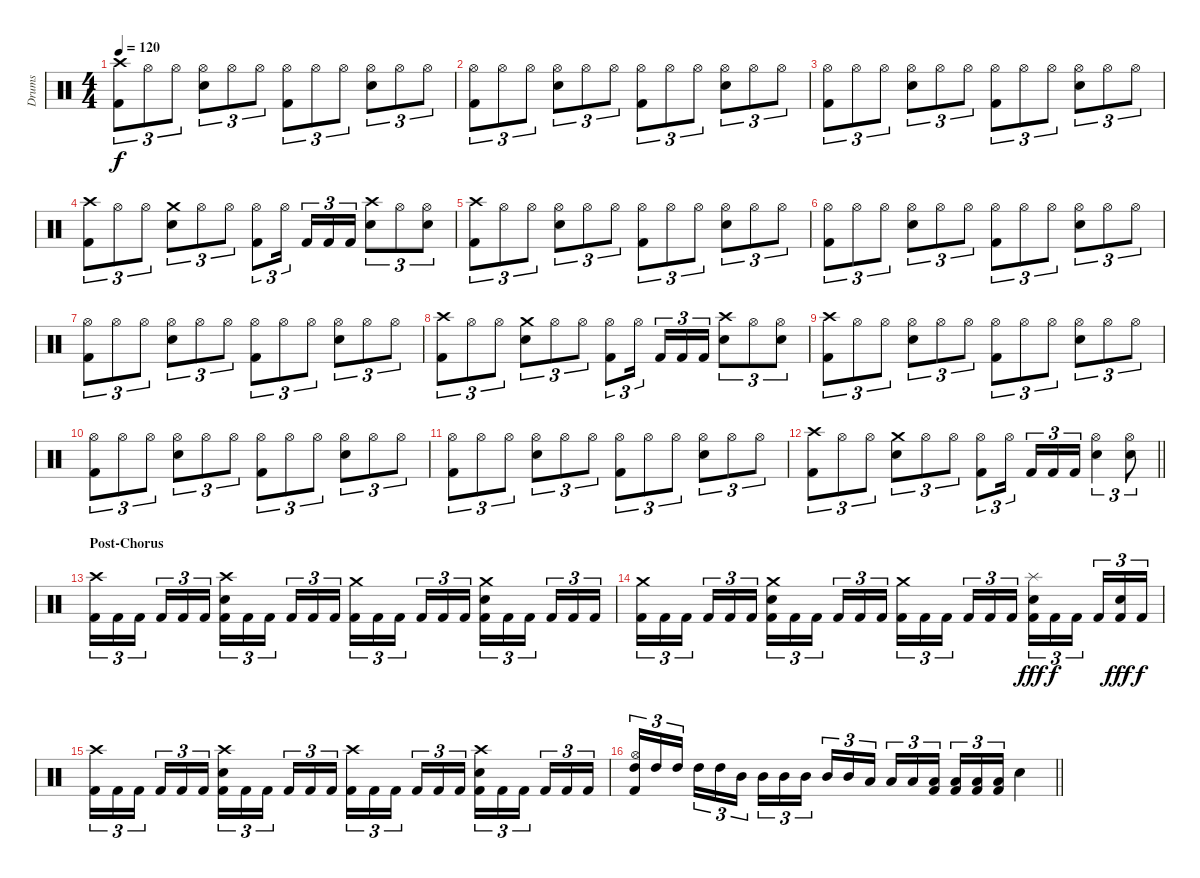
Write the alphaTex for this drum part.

\track ("Drums" "Drums") {instrument percussion}
\staff {score}
\articulation defaults
\ts (4 4)
\tempo 120
\clef neutral
\ks c
("Crash high (hit)" "Kick (hit) 2").8{tu (3 2) dy f} "Hi-Hat (open)".8{tu (3 2)} "Hi-Hat (open)".8{tu (3 2)} ("Hi-Hat (open)" "Electric Snare (hit)").8{tu (3 2)} "Hi-Hat (open)".8{tu (3 2)} "Hi-Hat (open)".8{tu (3 2)} ("Hi-Hat (open)" "Kick (hit) 2").8{tu (3 2)} "Hi-Hat (open)".8{tu (3 2)} "Hi-Hat (open)".8{tu (3 2)} ("Hi-Hat (open)" "Electric Snare (hit)").8{tu (3 2)} "Hi-Hat (open)".8{tu (3 2)} "Hi-Hat (open)".8{tu (3 2)} |
("Hi-Hat (open)" "Kick (hit) 2").8{tu (3 2)} "Hi-Hat (open)".8{tu (3 2)} "Hi-Hat (open)".8{tu (3 2)} ("Hi-Hat (open)" "Electric Snare (hit)").8{tu (3 2)} "Hi-Hat (open)".8{tu (3 2)} "Hi-Hat (open)".8{tu (3 2)} ("Hi-Hat (open)" "Kick (hit) 2").8{tu (3 2)} "Hi-Hat (open)".8{tu (3 2)} "Hi-Hat (open)".8{tu (3 2)} ("Hi-Hat (open)" "Electric Snare (hit)").8{tu (3 2)} "Hi-Hat (open)".8{tu (3 2)} "Hi-Hat (open)".8{tu (3 2)} |
("Hi-Hat (open)" "Kick (hit) 2").8{tu (3 2)} "Hi-Hat (open)".8{tu (3 2)} "Hi-Hat (open)".8{tu (3 2)} ("Hi-Hat (open)" "Electric Snare (hit)").8{tu (3 2)} "Hi-Hat (open)".8{tu (3 2)} "Hi-Hat (open)".8{tu (3 2)} ("Hi-Hat (open)" "Kick (hit) 2").8{tu (3 2)} "Hi-Hat (open)".8{tu (3 2)} "Hi-Hat (open)".8{tu (3 2)} ("Hi-Hat (open)" "Electric Snare (hit)").8{tu (3 2)} "Hi-Hat (open)".8{tu (3 2)} "Hi-Hat (open)".8{tu (3 2)} |
("Crash high (hit)" "Kick (hit) 2").8{tu (3 2)} "Hi-Hat (open)".8{tu (3 2)} "Hi-Hat (open)".8{tu (3 2)} ("Crash medium (hit)" "Electric Snare (hit)").8{tu (3 2)} "Hi-Hat (open)".8{tu (3 2)} "Hi-Hat (open)".8{tu (3 2)} ("Hi-Hat (open)" "Kick (hit) 2").8{tu (3 2)} "Hi-Hat (open)".16{tu (3 2) beam splitsecondary} "Kick (hit) 2".16{tu (3 2)} "Kick (hit) 2".16{tu (3 2)} "Kick (hit) 2".16{tu (3 2)} ("Crash high (hit)" "Electric Snare (hit)").8{tu (3 2)} "Hi-Hat (open)".8{tu (3 2)} ("Hi-Hat (open)" "Electric Snare (hit)").8{tu (3 2)} |
("Crash high (hit)" "Kick (hit) 2").8{tu (3 2)} "Hi-Hat (open)".8{tu (3 2)} "Hi-Hat (open)".8{tu (3 2)} ("Hi-Hat (open)" "Electric Snare (hit)").8{tu (3 2)} "Hi-Hat (open)".8{tu (3 2)} "Hi-Hat (open)".8{tu (3 2)} ("Hi-Hat (open)" "Kick (hit) 2").8{tu (3 2)} "Hi-Hat (open)".8{tu (3 2)} "Hi-Hat (open)".8{tu (3 2)} ("Hi-Hat (open)" "Electric Snare (hit)").8{tu (3 2)} "Hi-Hat (open)".8{tu (3 2)} "Hi-Hat (open)".8{tu (3 2)} |
("Hi-Hat (open)" "Kick (hit) 2").8{tu (3 2)} "Hi-Hat (open)".8{tu (3 2)} "Hi-Hat (open)".8{tu (3 2)} ("Hi-Hat (open)" "Electric Snare (hit)").8{tu (3 2)} "Hi-Hat (open)".8{tu (3 2)} "Hi-Hat (open)".8{tu (3 2)} ("Hi-Hat (open)" "Kick (hit) 2").8{tu (3 2)} "Hi-Hat (open)".8{tu (3 2)} "Hi-Hat (open)".8{tu (3 2)} ("Hi-Hat (open)" "Electric Snare (hit)").8{tu (3 2)} "Hi-Hat (open)".8{tu (3 2)} "Hi-Hat (open)".8{tu (3 2)} |
("Hi-Hat (open)" "Kick (hit) 2").8{tu (3 2)} "Hi-Hat (open)".8{tu (3 2)} "Hi-Hat (open)".8{tu (3 2)} ("Hi-Hat (open)" "Electric Snare (hit)").8{tu (3 2)} "Hi-Hat (open)".8{tu (3 2)} "Hi-Hat (open)".8{tu (3 2)} ("Hi-Hat (open)" "Kick (hit) 2").8{tu (3 2)} "Hi-Hat (open)".8{tu (3 2)} "Hi-Hat (open)".8{tu (3 2)} ("Hi-Hat (open)" "Electric Snare (hit)").8{tu (3 2)} "Hi-Hat (open)".8{tu (3 2)} "Hi-Hat (open)".8{tu (3 2)} |
("Crash high (hit)" "Kick (hit) 2").8{tu (3 2)} "Hi-Hat (open)".8{tu (3 2)} "Hi-Hat (open)".8{tu (3 2)} ("Crash medium (hit)" "Electric Snare (hit)").8{tu (3 2)} "Hi-Hat (open)".8{tu (3 2)} "Hi-Hat (open)".8{tu (3 2)} ("Hi-Hat (open)" "Kick (hit) 2").8{tu (3 2)} "Hi-Hat (open)".16{tu (3 2) beam splitsecondary} "Kick (hit) 2".16{tu (3 2)} "Kick (hit) 2".16{tu (3 2)} "Kick (hit) 2".16{tu (3 2)} ("Crash high (hit)" "Electric Snare (hit)").8{tu (3 2)} "Hi-Hat (open)".8{tu (3 2)} ("Hi-Hat (open)" "Electric Snare (hit)").8{tu (3 2)} |
("Crash high (hit)" "Kick (hit) 2").8{tu (3 2)} "Hi-Hat (open)".8{tu (3 2)} "Hi-Hat (open)".8{tu (3 2)} ("Hi-Hat (open)" "Electric Snare (hit)").8{tu (3 2)} "Hi-Hat (open)".8{tu (3 2)} "Hi-Hat (open)".8{tu (3 2)} ("Hi-Hat (open)" "Kick (hit) 2").8{tu (3 2)} "Hi-Hat (open)".8{tu (3 2)} "Hi-Hat (open)".8{tu (3 2)} ("Hi-Hat (open)" "Electric Snare (hit)").8{tu (3 2)} "Hi-Hat (open)".8{tu (3 2)} "Hi-Hat (open)".8{tu (3 2)} |
("Hi-Hat (open)" "Kick (hit) 2").8{tu (3 2)} "Hi-Hat (open)".8{tu (3 2)} "Hi-Hat (open)".8{tu (3 2)} ("Hi-Hat (open)" "Electric Snare (hit)").8{tu (3 2)} "Hi-Hat (open)".8{tu (3 2)} "Hi-Hat (open)".8{tu (3 2)} ("Hi-Hat (open)" "Kick (hit) 2").8{tu (3 2)} "Hi-Hat (open)".8{tu (3 2)} "Hi-Hat (open)".8{tu (3 2)} ("Hi-Hat (open)" "Electric Snare (hit)").8{tu (3 2)} "Hi-Hat (open)".8{tu (3 2)} "Hi-Hat (open)".8{tu (3 2)} |
("Hi-Hat (open)" "Kick (hit) 2").8{tu (3 2)} "Hi-Hat (open)".8{tu (3 2)} "Hi-Hat (open)".8{tu (3 2)} ("Hi-Hat (open)" "Electric Snare (hit)").8{tu (3 2)} "Hi-Hat (open)".8{tu (3 2)} "Hi-Hat (open)".8{tu (3 2)} ("Hi-Hat (open)" "Kick (hit) 2").8{tu (3 2)} "Hi-Hat (open)".8{tu (3 2)} "Hi-Hat (open)".8{tu (3 2)} ("Hi-Hat (open)" "Electric Snare (hit)").8{tu (3 2)} "Hi-Hat (open)".8{tu (3 2)} "Hi-Hat (open)".8{tu (3 2)} |
\barLineRight lightlight
("Crash high (hit)" "Kick (hit) 2").8{tu (3 2)} "Hi-Hat (open)".8{tu (3 2)} "Hi-Hat (open)".8{tu (3 2)} ("Crash medium (hit)" "Electric Snare (hit)").8{tu (3 2)} "Hi-Hat (open)".8{tu (3 2)} "Hi-Hat (open)".8{tu (3 2)} ("Hi-Hat (open)" "Kick (hit) 2").8{tu (3 2)} "Hi-Hat (open)".16{tu (3 2) beam splitsecondary} "Kick (hit) 2".16{tu (3 2)} "Kick (hit) 2".16{tu (3 2)} "Kick (hit) 2".16{tu (3 2)} ("Hi-Hat (open)" "Electric Snare (hit)").4{tu (3 2)} ("Hi-Hat (open)" "Electric Snare (hit)").8{tu (3 2)} |
\section ("" "Post-Chorus")
("Crash high (hit)" "Kick (hit) 2").16{tu (3 2)} "Kick (hit) 2".16{tu (3 2)} "Kick (hit) 2".16{tu (3 2) beam splitsecondary} "Kick (hit) 2".16{tu (3 2)} "Kick (hit) 2".16{tu (3 2)} "Kick (hit) 2".16{tu (3 2)} ("Crash high (hit)" "Electric Snare (hit)" "Kick (hit) 2").16{tu (3 2)} "Kick (hit) 2".16{tu (3 2)} "Kick (hit) 2".16{tu (3 2) beam splitsecondary} "Kick (hit) 2".16{tu (3 2)} "Kick (hit) 2".16{tu (3 2)} "Kick (hit) 2".16{tu (3 2)} ("Crash medium (hit)" "Kick (hit) 2").16{tu (3 2)} "Kick (hit) 2".16{tu (3 2)} "Kick (hit) 2".16{tu (3 2) beam splitsecondary} "Kick (hit) 2".16{tu (3 2)} "Kick (hit) 2".16{tu (3 2)} "Kick (hit) 2".16{tu (3 2)} ("Crash medium (hit)" "Electric Snare (hit)" "Kick (hit) 2").16{tu (3 2)} "Kick (hit) 2".16{tu (3 2)} "Kick (hit) 2".16{tu (3 2) beam splitsecondary} "Kick (hit) 2".16{tu (3 2)} "Kick (hit) 2".16{tu (3 2)} "Kick (hit) 2".16{tu (3 2)} |
("Crash medium (hit)" "Kick (hit) 2").16{tu (3 2)} "Kick (hit) 2".16{tu (3 2)} "Kick (hit) 2".16{tu (3 2) beam splitsecondary} "Kick (hit) 2".16{tu (3 2)} "Kick (hit) 2".16{tu (3 2)} "Kick (hit) 2".16{tu (3 2)} ("Crash medium (hit)" "Electric Snare (hit)" "Kick (hit) 2").16{tu (3 2)} "Kick (hit) 2".16{tu (3 2)} "Kick (hit) 2".16{tu (3 2) beam splitsecondary} "Kick (hit) 2".16{tu (3 2)} "Kick (hit) 2".16{tu (3 2)} "Kick (hit) 2".16{tu (3 2)} ("Crash medium (hit)" "Kick (hit) 2").16{tu (3 2)} "Kick (hit) 2".16{tu (3 2)} "Kick (hit) 2".16{tu (3 2) beam splitsecondary} "Kick (hit) 2".16{tu (3 2)} "Kick (hit) 2".16{tu (3 2)} "Kick (hit) 2".16{tu (3 2)} ("Splash (hit)" "Electric Snare (hit)" "Kick (hit) 2").16{tu (3 2) dy fff} "Kick (hit) 2".16{tu (3 2) dy f} "Kick (hit) 2".16{tu (3 2) beam splitsecondary} "Kick (hit) 2".16{tu (3 2)} ("Electric Snare (hit)" "Kick (hit) 2").16{tu (3 2) dy fff} "Kick (hit) 2".16{tu (3 2) dy f} |
("Crash high (hit)" "Kick (hit) 2").16{tu (3 2)} "Kick (hit) 2".16{tu (3 2)} "Kick (hit) 2".16{tu (3 2) beam splitsecondary} "Kick (hit) 2".16{tu (3 2)} "Kick (hit) 2".16{tu (3 2)} "Kick (hit) 2".16{tu (3 2)} ("Crash high (hit)" "Electric Snare (hit)" "Kick (hit) 2").16{tu (3 2)} "Kick (hit) 2".16{tu (3 2)} "Kick (hit) 2".16{tu (3 2) beam splitsecondary} "Kick (hit) 2".16{tu (3 2)} "Kick (hit) 2".16{tu (3 2)} "Kick (hit) 2".16{tu (3 2)} ("Crash high (hit)" "Kick (hit) 2").16{tu (3 2)} "Kick (hit) 2".16{tu (3 2)} "Kick (hit) 2".16{tu (3 2) beam splitsecondary} "Kick (hit) 2".16{tu (3 2)} "Kick (hit) 2".16{tu (3 2)} "Kick (hit) 2".16{tu (3 2)} ("Crash high (hit)" "Electric Snare (hit)" "Kick (hit) 2").16{tu (3 2)} "Kick (hit) 2".16{tu (3 2)} "Kick (hit) 2".16{tu (3 2) beam splitsecondary} "Kick (hit) 2".16{tu (3 2)} "Kick (hit) 2".16{tu (3 2)} "Kick (hit) 2".16{tu (3 2)} |
\barLineRight lightlight
("Hi-Hat (open)" "High Tom (hit)" "Kick (hit) 2").16{tu (3 2)} "High Tom (hit)".16{tu (3 2)} "High Tom (hit)".16{tu (3 2) beam splitsecondary} "High Tom (hit)".16{tu (3 2)} "High Tom (hit)".16{tu (3 2)} "Mid Tom (hit)".16{tu (3 2)} "Mid Tom (hit)".16{tu (3 2)} "Mid Tom (hit)".16{tu (3 2)} "Mid Tom (hit)".16{tu (3 2) beam splitsecondary} "Mid Tom (hit)".16{tu (3 2)} "Mid Tom (hit)".16{tu (3 2)} "Low Tom (hit)".16{tu (3 2)} "Low Tom (hit)".16{tu (3 2)} "Low Tom (hit)".16{tu (3 2)} ("Low Tom (hit)" "Kick (hit) 2").16{tu (3 2) beam splitsecondary} ("Low Tom (hit)" "Kick (hit) 2").16{tu (3 2)} ("Low Tom (hit)" "Kick (hit) 2").16{tu (3 2)} ("Low Tom (hit)" "Kick (hit) 2").16{tu (3 2)} "Electric Snare (hit)".4
